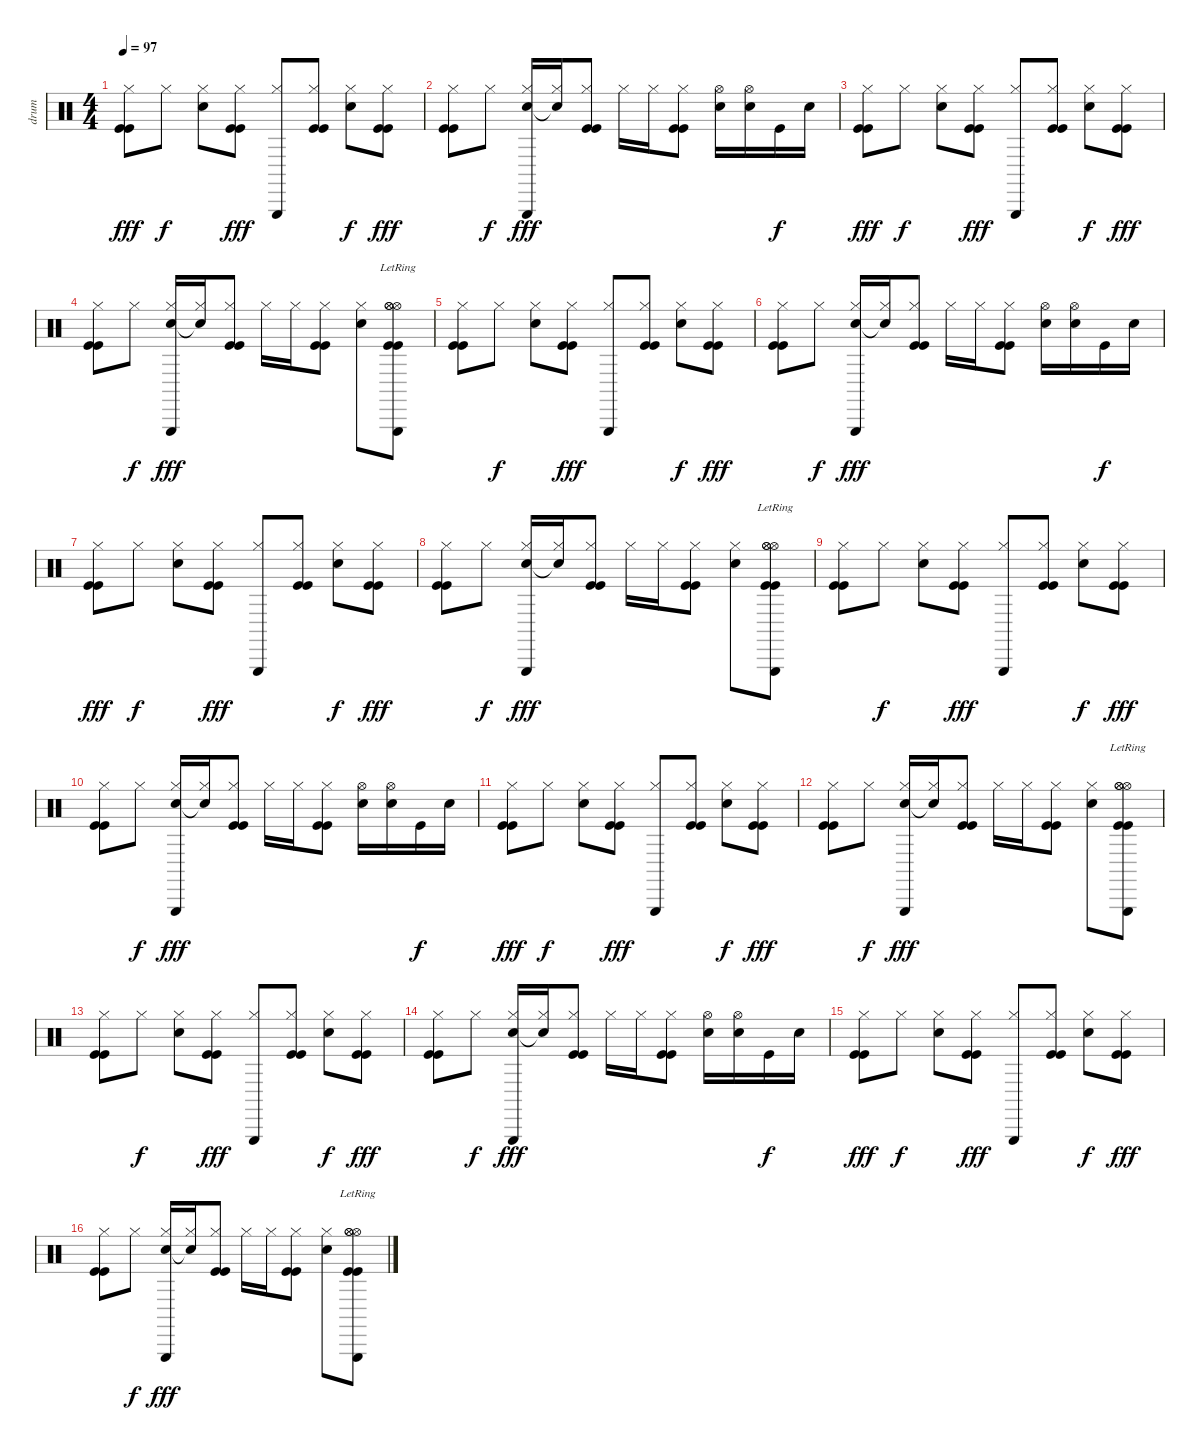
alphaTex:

\track ("drum" "drum") {instrument percussion}
\staff {score}
\articulation defaults
\ts (4 4)
\tempo 97
\clef neutral
\ks c
("Hi-Hat (closed)" "Kick (hit)" "Kick (hit)").8{dy fff} "Hi-Hat (closed)".8{dy f} ("Hi-Hat (closed)" "Electric Snare (hit)").8 ("Hi-Hat (closed)" "Kick (hit)" "Kick (hit)").8{dy fff} ("Hi-Hat (closed)" "Triangle (hit)").8 ("Hi-Hat (closed)" "Kick (hit)" "Kick (hit)").8 ("Hi-Hat (closed)" "Electric Snare (hit)").8{dy f} ("Hi-Hat (closed)" "Kick (hit)" "Kick (hit)").8{dy fff} |
("Hi-Hat (closed)" "Kick (hit)" "Kick (hit)").8 "Hi-Hat (closed)".8{dy f} ("Hi-Hat (closed)" "Electric Snare (hit)" "Triangle (hit)").16{dy fff} ("Hi-Hat (closed)" "Snare (hit)"{t}).16 ("Hi-Hat (closed)" "Kick (hit)" "Kick (hit)").8 "Hi-Hat (closed)".16 "Hi-Hat (closed)".16 ("Hi-Hat (closed)" "Kick (hit)" "Kick (hit)").8 ("Hi-Hat (open)" "Electric Snare (hit)").16 ("Hi-Hat (open)" "Electric Snare (hit)").16 "Kick (hit)".16{dy f} "Electric Snare (hit)".16 |
("Hi-Hat (closed)" "Kick (hit)" "Kick (hit)").8{dy fff} "Hi-Hat (closed)".8{dy f} ("Hi-Hat (closed)" "Electric Snare (hit)").8 ("Hi-Hat (closed)" "Kick (hit)" "Kick (hit)").8{dy fff} ("Hi-Hat (closed)" "Triangle (hit)").8 ("Hi-Hat (closed)" "Kick (hit)" "Kick (hit)").8 ("Hi-Hat (closed)" "Electric Snare (hit)").8{dy f} ("Hi-Hat (closed)" "Kick (hit)" "Kick (hit)").8{dy fff} |
("Hi-Hat (closed)" "Kick (hit)" "Kick (hit)").8 "Hi-Hat (closed)".8{dy f} ("Hi-Hat (closed)" "Electric Snare (hit)" "Triangle (hit)").16{dy fff} ("Hi-Hat (closed)" "Snare (hit)"{t}).16 ("Hi-Hat (closed)" "Kick (hit)" "Kick (hit)").8 "Hi-Hat (closed)".16 "Hi-Hat (closed)".16 ("Hi-Hat (closed)" "Kick (hit)" "Kick (hit)").8 ("Hi-Hat (closed)" "Electric Snare (hit)").8 ("Hi-Hat (open)" "Hi-Hat (open)" "Hi-Hat (open)" "Triangle (hit)"{lr} "Kick (hit)" "Kick (hit)").8 |
("Hi-Hat (closed)" "Kick (hit)" "Kick (hit)").8 "Hi-Hat (closed)".8{dy f} ("Hi-Hat (closed)" "Electric Snare (hit)").8 ("Hi-Hat (closed)" "Kick (hit)" "Kick (hit)").8{dy fff} ("Hi-Hat (closed)" "Triangle (hit)").8 ("Hi-Hat (closed)" "Kick (hit)" "Kick (hit)").8 ("Hi-Hat (closed)" "Electric Snare (hit)").8{dy f} ("Hi-Hat (closed)" "Kick (hit)" "Kick (hit)").8{dy fff} |
("Hi-Hat (closed)" "Kick (hit)" "Kick (hit)").8 "Hi-Hat (closed)".8{dy f} ("Hi-Hat (closed)" "Electric Snare (hit)" "Triangle (hit)").16{dy fff} ("Hi-Hat (closed)" "Snare (hit)"{t}).16 ("Hi-Hat (closed)" "Kick (hit)" "Kick (hit)").8 "Hi-Hat (closed)".16 "Hi-Hat (closed)".16 ("Hi-Hat (closed)" "Kick (hit)" "Kick (hit)").8 ("Hi-Hat (open)" "Electric Snare (hit)").16 ("Hi-Hat (open)" "Electric Snare (hit)").16 "Kick (hit)".16{dy f} "Electric Snare (hit)".16 |
("Hi-Hat (closed)" "Kick (hit)" "Kick (hit)").8{dy fff} "Hi-Hat (closed)".8{dy f} ("Hi-Hat (closed)" "Electric Snare (hit)").8 ("Hi-Hat (closed)" "Kick (hit)" "Kick (hit)").8{dy fff} ("Hi-Hat (closed)" "Triangle (hit)").8 ("Hi-Hat (closed)" "Kick (hit)" "Kick (hit)").8 ("Hi-Hat (closed)" "Electric Snare (hit)").8{dy f} ("Hi-Hat (closed)" "Kick (hit)" "Kick (hit)").8{dy fff} |
("Hi-Hat (closed)" "Kick (hit)" "Kick (hit)").8 "Hi-Hat (closed)".8{dy f} ("Hi-Hat (closed)" "Electric Snare (hit)" "Triangle (hit)").16{dy fff} ("Hi-Hat (closed)" "Snare (hit)"{t}).16 ("Hi-Hat (closed)" "Kick (hit)" "Kick (hit)").8 "Hi-Hat (closed)".16 "Hi-Hat (closed)".16 ("Hi-Hat (closed)" "Kick (hit)" "Kick (hit)").8 ("Hi-Hat (closed)" "Electric Snare (hit)").8 ("Hi-Hat (open)" "Hi-Hat (open)" "Hi-Hat (open)" "Triangle (hit)"{lr} "Kick (hit)" "Kick (hit)").8 |
("Hi-Hat (closed)" "Kick (hit)" "Kick (hit)").8 "Hi-Hat (closed)".8{dy f} ("Hi-Hat (closed)" "Electric Snare (hit)").8 ("Hi-Hat (closed)" "Kick (hit)" "Kick (hit)").8{dy fff} ("Hi-Hat (closed)" "Triangle (hit)").8 ("Hi-Hat (closed)" "Kick (hit)" "Kick (hit)").8 ("Hi-Hat (closed)" "Electric Snare (hit)").8{dy f} ("Hi-Hat (closed)" "Kick (hit)" "Kick (hit)").8{dy fff} |
("Hi-Hat (closed)" "Kick (hit)" "Kick (hit)").8 "Hi-Hat (closed)".8{dy f} ("Hi-Hat (closed)" "Electric Snare (hit)" "Triangle (hit)").16{dy fff} ("Hi-Hat (closed)" "Snare (hit)"{t}).16 ("Hi-Hat (closed)" "Kick (hit)" "Kick (hit)").8 "Hi-Hat (closed)".16 "Hi-Hat (closed)".16 ("Hi-Hat (closed)" "Kick (hit)" "Kick (hit)").8 ("Hi-Hat (open)" "Electric Snare (hit)").16 ("Hi-Hat (open)" "Electric Snare (hit)").16 "Kick (hit)".16{dy f} "Electric Snare (hit)".16 |
("Hi-Hat (closed)" "Kick (hit)" "Kick (hit)").8{dy fff} "Hi-Hat (closed)".8{dy f} ("Hi-Hat (closed)" "Electric Snare (hit)").8 ("Hi-Hat (closed)" "Kick (hit)" "Kick (hit)").8{dy fff} ("Hi-Hat (closed)" "Triangle (hit)").8 ("Hi-Hat (closed)" "Kick (hit)" "Kick (hit)").8 ("Hi-Hat (closed)" "Electric Snare (hit)").8{dy f} ("Hi-Hat (closed)" "Kick (hit)" "Kick (hit)").8{dy fff} |
("Hi-Hat (closed)" "Kick (hit)" "Kick (hit)").8 "Hi-Hat (closed)".8{dy f} ("Hi-Hat (closed)" "Electric Snare (hit)" "Triangle (hit)").16{dy fff} ("Hi-Hat (closed)" "Snare (hit)"{t}).16 ("Hi-Hat (closed)" "Kick (hit)" "Kick (hit)").8 "Hi-Hat (closed)".16 "Hi-Hat (closed)".16 ("Hi-Hat (closed)" "Kick (hit)" "Kick (hit)").8 ("Hi-Hat (closed)" "Electric Snare (hit)").8 ("Hi-Hat (open)" "Hi-Hat (open)" "Hi-Hat (open)" "Triangle (hit)"{lr} "Kick (hit)" "Kick (hit)").8 |
("Hi-Hat (closed)" "Kick (hit)" "Kick (hit)").8 "Hi-Hat (closed)".8{dy f} ("Hi-Hat (closed)" "Electric Snare (hit)").8 ("Hi-Hat (closed)" "Kick (hit)" "Kick (hit)").8{dy fff} ("Hi-Hat (closed)" "Triangle (hit)").8 ("Hi-Hat (closed)" "Kick (hit)" "Kick (hit)").8 ("Hi-Hat (closed)" "Electric Snare (hit)").8{dy f} ("Hi-Hat (closed)" "Kick (hit)" "Kick (hit)").8{dy fff} |
("Hi-Hat (closed)" "Kick (hit)" "Kick (hit)").8 "Hi-Hat (closed)".8{dy f} ("Hi-Hat (closed)" "Electric Snare (hit)" "Triangle (hit)").16{dy fff} ("Hi-Hat (closed)" "Snare (hit)"{t}).16 ("Hi-Hat (closed)" "Kick (hit)" "Kick (hit)").8 "Hi-Hat (closed)".16 "Hi-Hat (closed)".16 ("Hi-Hat (closed)" "Kick (hit)" "Kick (hit)").8 ("Hi-Hat (open)" "Electric Snare (hit)").16 ("Hi-Hat (open)" "Electric Snare (hit)").16 "Kick (hit)".16{dy f} "Electric Snare (hit)".16 |
("Hi-Hat (closed)" "Kick (hit)" "Kick (hit)").8{dy fff} "Hi-Hat (closed)".8{dy f} ("Hi-Hat (closed)" "Electric Snare (hit)").8 ("Hi-Hat (closed)" "Kick (hit)" "Kick (hit)").8{dy fff} ("Hi-Hat (closed)" "Triangle (hit)").8 ("Hi-Hat (closed)" "Kick (hit)" "Kick (hit)").8 ("Hi-Hat (closed)" "Electric Snare (hit)").8{dy f} ("Hi-Hat (closed)" "Kick (hit)" "Kick (hit)").8{dy fff} |
("Hi-Hat (closed)" "Kick (hit)" "Kick (hit)").8 "Hi-Hat (closed)".8{dy f} ("Hi-Hat (closed)" "Electric Snare (hit)" "Triangle (hit)").16{dy fff} ("Hi-Hat (closed)" "Snare (hit)"{t}).16 ("Hi-Hat (closed)" "Kick (hit)" "Kick (hit)").8 "Hi-Hat (closed)".16 "Hi-Hat (closed)".16 ("Hi-Hat (closed)" "Kick (hit)" "Kick (hit)").8 ("Hi-Hat (closed)" "Electric Snare (hit)").8 ("Hi-Hat (open)" "Hi-Hat (open)" "Hi-Hat (open)" "Triangle (hit)"{lr} "Kick (hit)" "Kick (hit)").8
